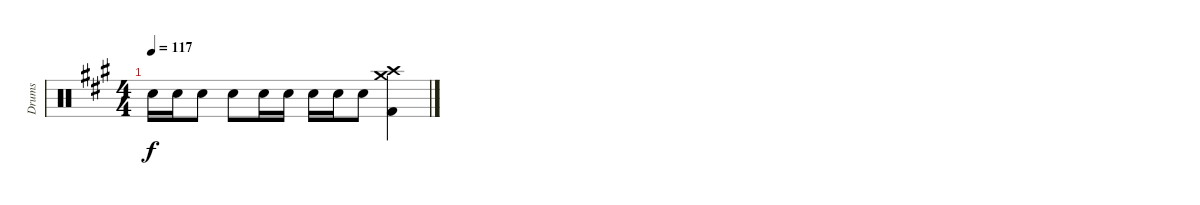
\track ("Drums" "Drums") {instrument percussion}
\staff {score}
\articulation defaults
\ts (4 4)
\tempo 117
\clef neutral
\ks a "Snare (hit) 2".16{dy f} "Snare (hit) 2".16 "Snare (hit) 2".8 "Snare (hit) 2".8 "Snare (hit) 2".16 "Snare (hit) 2".16 "Snare (hit) 2".16 "Snare (hit) 2".16 "Snare (hit) 2".8
("Crash high (hit)" "Crash medium (hit)" "Kick (hit) 2").4
